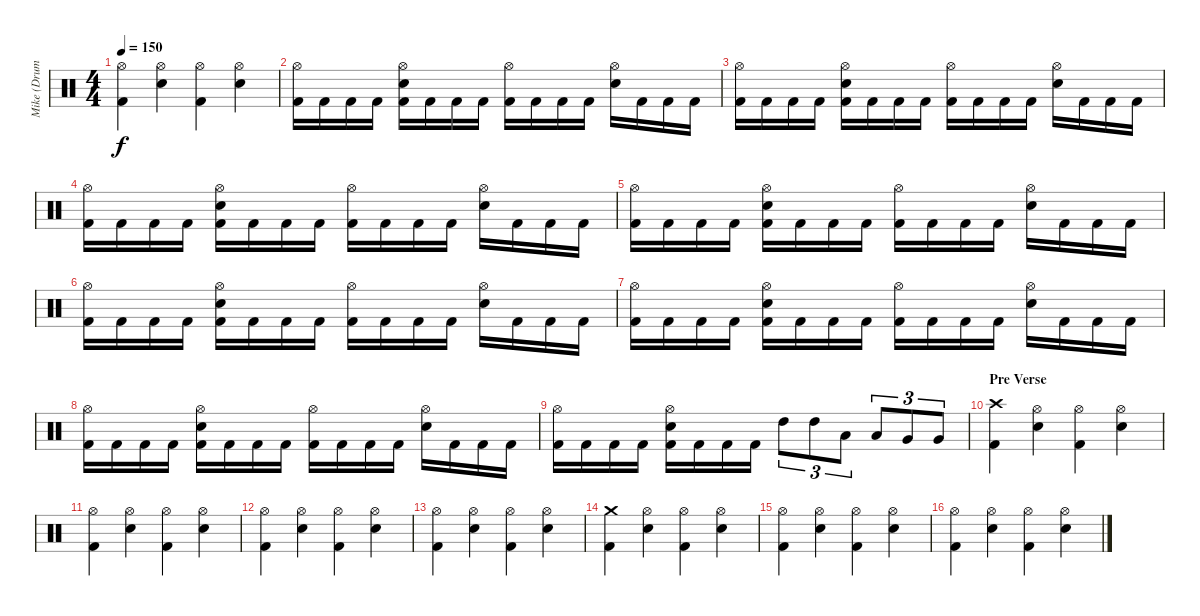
\track ("Mike (Drums)" "Mike (Drum") {instrument percussion}
\staff {score}
\articulation defaults
\ts (4 4)
\tempo 150
\clef neutral
\ks c
("Hi-Hat (open)" "Kick (hit) 2").4{dy f} ("Hi-Hat (open)" "Snare (hit) 2").4 ("Hi-Hat (open)" "Kick (hit) 2").4 ("Hi-Hat (open)" "Snare (hit) 2").4 |
("Hi-Hat (open)" "Kick (hit) 2").16{volume 13} "Kick (hit) 2".16 "Kick (hit) 2".16 "Kick (hit) 2".16 ("Hi-Hat (open)" "Snare (hit) 2" "Kick (hit) 2").16 "Kick (hit) 2".16 "Kick (hit) 2".16 "Kick (hit) 2".16 ("Hi-Hat (open)" "Kick (hit) 2").16 "Kick (hit) 2".16 "Kick (hit) 2".16 "Kick (hit) 2".16 ("Hi-Hat (open)" "Snare (hit) 2").16 "Kick (hit) 2".16 "Kick (hit) 2".16 "Kick (hit) 2".16 |
("Hi-Hat (open)" "Kick (hit) 2").16 "Kick (hit) 2".16 "Kick (hit) 2".16 "Kick (hit) 2".16 ("Hi-Hat (open)" "Snare (hit) 2" "Kick (hit) 2").16 "Kick (hit) 2".16 "Kick (hit) 2".16 "Kick (hit) 2".16 ("Hi-Hat (open)" "Kick (hit) 2").16 "Kick (hit) 2".16 "Kick (hit) 2".16 "Kick (hit) 2".16 ("Hi-Hat (open)" "Snare (hit) 2").16 "Kick (hit) 2".16 "Kick (hit) 2".16 "Kick (hit) 2".16 |
("Hi-Hat (open)" "Kick (hit) 2").16 "Kick (hit) 2".16 "Kick (hit) 2".16 "Kick (hit) 2".16 ("Hi-Hat (open)" "Snare (hit) 2" "Kick (hit) 2").16 "Kick (hit) 2".16 "Kick (hit) 2".16 "Kick (hit) 2".16 ("Hi-Hat (open)" "Kick (hit) 2").16 "Kick (hit) 2".16 "Kick (hit) 2".16 "Kick (hit) 2".16 ("Hi-Hat (open)" "Snare (hit) 2").16 "Kick (hit) 2".16 "Kick (hit) 2".16 "Kick (hit) 2".16 |
("Hi-Hat (open)" "Kick (hit) 2").16 "Kick (hit) 2".16 "Kick (hit) 2".16 "Kick (hit) 2".16 ("Hi-Hat (open)" "Snare (hit) 2" "Kick (hit) 2").16 "Kick (hit) 2".16 "Kick (hit) 2".16 "Kick (hit) 2".16 ("Hi-Hat (open)" "Kick (hit) 2").16 "Kick (hit) 2".16 "Kick (hit) 2".16 "Kick (hit) 2".16 ("Hi-Hat (open)" "Snare (hit) 2").16 "Kick (hit) 2".16 "Kick (hit) 2".16 "Kick (hit) 2".16 |
("Hi-Hat (open)" "Kick (hit) 2").16 "Kick (hit) 2".16 "Kick (hit) 2".16 "Kick (hit) 2".16 ("Hi-Hat (open)" "Snare (hit) 2" "Kick (hit) 2").16 "Kick (hit) 2".16 "Kick (hit) 2".16 "Kick (hit) 2".16 ("Hi-Hat (open)" "Kick (hit) 2").16 "Kick (hit) 2".16 "Kick (hit) 2".16 "Kick (hit) 2".16 ("Hi-Hat (open)" "Snare (hit) 2").16 "Kick (hit) 2".16 "Kick (hit) 2".16 "Kick (hit) 2".16 |
("Hi-Hat (open)" "Kick (hit) 2").16 "Kick (hit) 2".16 "Kick (hit) 2".16 "Kick (hit) 2".16 ("Hi-Hat (open)" "Snare (hit) 2" "Kick (hit) 2").16 "Kick (hit) 2".16 "Kick (hit) 2".16 "Kick (hit) 2".16 ("Hi-Hat (open)" "Kick (hit) 2").16 "Kick (hit) 2".16 "Kick (hit) 2".16 "Kick (hit) 2".16 ("Hi-Hat (open)" "Snare (hit) 2").16 "Kick (hit) 2".16 "Kick (hit) 2".16 "Kick (hit) 2".16 |
("Hi-Hat (open)" "Kick (hit) 2").16 "Kick (hit) 2".16 "Kick (hit) 2".16 "Kick (hit) 2".16 ("Hi-Hat (open)" "Snare (hit) 2" "Kick (hit) 2").16 "Kick (hit) 2".16 "Kick (hit) 2".16 "Kick (hit) 2".16 ("Hi-Hat (open)" "Kick (hit) 2").16 "Kick (hit) 2".16 "Kick (hit) 2".16 "Kick (hit) 2".16 ("Hi-Hat (open)" "Snare (hit) 2").16 "Kick (hit) 2".16 "Kick (hit) 2".16 "Kick (hit) 2".16 |
("Hi-Hat (open)" "Kick (hit) 2").16 "Kick (hit) 2".16 "Kick (hit) 2".16 "Kick (hit) 2".16 ("Hi-Hat (open)" "Snare (hit) 2" "Kick (hit) 2").16 "Kick (hit) 2".16 "Kick (hit) 2".16 "Kick (hit) 2".16 "High Tom (hit)".8{tu (3 2)} "High Tom (hit)".8{tu (3 2)} "Low Tom (hit)".8{tu (3 2)} "Low Tom (hit)".8{tu (3 2)} "Very Low Tom (hit)".8{tu (3 2)} "Very Low Tom (hit)".8{tu (3 2)} |
\section ("" "Pre Verse")
("Crash high (hit)" "Kick (hit) 2").4 ("Hi-Hat (open)" "Snare (hit) 2").4 ("Hi-Hat (open)" "Kick (hit) 2").4 ("Hi-Hat (open)" "Snare (hit) 2").4 |
("Hi-Hat (open)" "Kick (hit) 2").4 ("Hi-Hat (open)" "Snare (hit) 2").4 ("Hi-Hat (open)" "Kick (hit) 2").4 ("Hi-Hat (open)" "Snare (hit) 2").4 |
("Hi-Hat (open)" "Kick (hit) 2").4 ("Hi-Hat (open)" "Snare (hit) 2").4 ("Hi-Hat (open)" "Kick (hit) 2").4 ("Hi-Hat (open)" "Snare (hit) 2").4 |
("Hi-Hat (open)" "Kick (hit) 2").4 ("Hi-Hat (open)" "Snare (hit) 2").4 ("Hi-Hat (open)" "Kick (hit) 2").4 ("Hi-Hat (open)" "Snare (hit) 2").4 |
("Crash medium (hit)" "Kick (hit) 2").4 ("Hi-Hat (open)" "Snare (hit) 2").4 ("Hi-Hat (open)" "Kick (hit) 2").4 ("Hi-Hat (open)" "Snare (hit) 2").4 |
("Hi-Hat (open)" "Kick (hit) 2").4 ("Hi-Hat (open)" "Snare (hit) 2").4 ("Hi-Hat (open)" "Kick (hit) 2").4 ("Hi-Hat (open)" "Snare (hit) 2").4 |
("Hi-Hat (open)" "Kick (hit) 2").4 ("Hi-Hat (open)" "Snare (hit) 2").4 ("Hi-Hat (open)" "Kick (hit) 2").4 ("Hi-Hat (open)" "Snare (hit) 2").4
